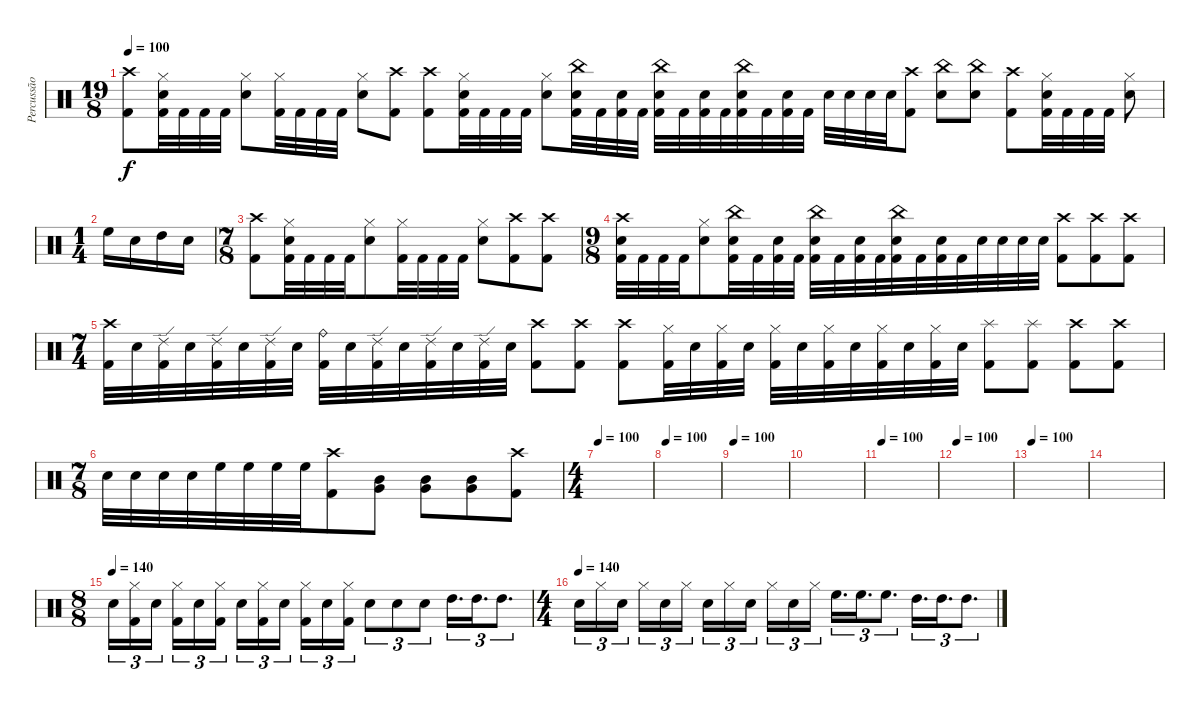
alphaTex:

\track ("Percussão" "Percussão") {instrument percussion}
\staff {score}
\articulation defaults
\ts (19 8)
\tempo 100
\clef neutral
\ks c
("Crash high (hit)" "Kick (hit) 2").8{dy f} ("Hi-Hat (closed)" "Electric Snare (hit)" "Kick (hit) 2").32 "Kick (hit) 2".32 "Kick (hit) 2".32 "Kick (hit) 2".32 ("Hi-Hat (closed)" "Electric Snare (hit)").8 ("Hi-Hat (closed)" "Kick (hit) 2").32 "Kick (hit) 2".32 "Kick (hit) 2".32 "Kick (hit) 2".32 ("Hi-Hat (closed)" "Electric Snare (hit)").8 ("Crash high (hit)" "Kick (hit) 2").8 ("Crash high (hit)" "Kick (hit) 2").8 ("Hi-Hat (closed)" "Electric Snare (hit)" "Kick (hit) 2").32 "Kick (hit) 2".32 "Kick (hit) 2".32 "Kick (hit) 2".32 ("Hi-Hat (closed)" "Electric Snare (hit)").8 ("China (hit)" "Electric Snare (hit)" "Kick (hit) 2").32 "Kick (hit) 2".32 ("Electric Snare (hit)" "Kick (hit) 2").32 "Kick (hit) 2".32 ("China (hit)" "Electric Snare (hit)" "Kick (hit) 2").32 "Kick (hit) 2".32 ("Electric Snare (hit)" "Kick (hit) 2").32 "Kick (hit) 2".32 ("China (hit)" "Electric Snare (hit)" "Kick (hit) 2").32 "Kick (hit) 2".32 ("Electric Snare (hit)" "Kick (hit) 2").32 "Kick (hit) 2".32 "Electric Snare (hit)".32 "Electric Snare (hit)".32 "Electric Snare (hit)".32 "Electric Snare (hit)".32 ("Crash high (hit)" "Kick (hit) 2").8 ("China (hit)" "Electric Snare (hit)").8 ("China (hit)" "Electric Snare (hit)").8 ("Crash high (hit)" "Kick (hit) 2").8 ("Electric Snare (hit)" "Hi-Hat (closed)" "Kick (hit) 2").32 "Kick (hit) 2".32 "Kick (hit) 2".32 "Kick (hit) 2".32 ("Hi-Hat (closed)" "Electric Snare (hit)").8 |
\ts (1 4)
"High Floor Tom (hit)".16 "Electric Snare (hit)".16 "High Tom (hit)".16 "Electric Snare (hit)".16 |
\ts (7 8)
("Crash high (hit)" "Kick (hit) 2").8 ("Hi-Hat (closed)" "Electric Snare (hit)" "Kick (hit) 2").32 "Kick (hit) 2".32 "Kick (hit) 2".32 "Kick (hit) 2".32 ("Hi-Hat (closed)" "Electric Snare (hit)").8 ("Hi-Hat (closed)" "Kick (hit) 2").32 "Kick (hit) 2".32 "Kick (hit) 2".32 "Kick (hit) 2".32 ("Hi-Hat (closed)" "Electric Snare (hit)").8 ("Crash high (hit)" "Kick (hit) 2").8 ("Crash high (hit)" "Kick (hit) 2").8 |
\ts (9 8)
("Crash high (hit)" "Electric Snare (hit)" "Kick (hit) 2").32 "Kick (hit) 2".32 "Kick (hit) 2".32 "Kick (hit) 2".32 ("Hi-Hat (closed)" "Electric Snare (hit)").8 ("China (hit)" "Electric Snare (hit)" "Kick (hit) 2").32 "Kick (hit) 2".32 ("Electric Snare (hit)" "Kick (hit) 2").32 "Kick (hit) 2".32 ("China (hit)" "Electric Snare (hit)" "Kick (hit) 2").32 "Kick (hit) 2".32 ("Electric Snare (hit)" "Kick (hit) 2").32 "Kick (hit) 2".32 ("China (hit)" "Electric Snare (hit)" "Kick (hit) 2").32 "Kick (hit) 2".32 ("Electric Snare (hit)" "Kick (hit) 2").32 "Kick (hit) 2".32 "Electric Snare (hit)".32 "Electric Snare (hit)".32 "Electric Snare (hit)".32 "Electric Snare (hit)".32 ("Crash high (hit)" "Kick (hit) 2").8 ("Crash high (hit)" "Kick (hit) 2").8 ("Crash high (hit)" "Kick (hit) 2").8 |
\ts (7 4)
("Crash high (hit)" "Kick (hit) 2").32 "Electric Snare (hit)".32 ("Ride (edge) 2" "Kick (hit) 2").32 "Electric Snare (hit)".32 ("Ride (edge) 2" "Kick (hit) 2").32 "Electric Snare (hit)".32 ("Ride (edge) 2" "Kick (hit) 2").32 "Electric Snare (hit)".32 ("Ride (bell)" "Kick (hit) 2").32 "Electric Snare (hit)".32 ("Ride (edge) 2" "Kick (hit) 2").32 "Electric Snare (hit)".32 ("Ride (edge) 2" "Kick (hit) 2").32 "Electric Snare (hit)".32 ("Ride (edge) 2" "Kick (hit) 2").32 "Electric Snare (hit)".32 ("Crash high (hit)" "Kick (hit) 2").8 ("Crash high (hit)" "Kick (hit) 2").8 ("Crash high (hit)" "Kick (hit) 2").8 ("Hi-Hat (closed)" "Kick (hit) 2").32 "Electric Snare (hit)".32 ("Hi-Hat (closed)" "Kick (hit) 2").32 "Electric Snare (hit)".32 ("Hi-Hat (closed)" "Kick (hit) 2").32 "Electric Snare (hit)".32 ("Hi-Hat (closed)" "Kick (hit) 2").32 "Electric Snare (hit)".32 ("Hi-Hat (closed)" "Kick (hit) 2").32 "Electric Snare (hit)".32 ("Hi-Hat (closed)" "Kick (hit) 2").32 "Electric Snare (hit)".32 ("Splash (hit)" "Kick (hit) 2").8 ("Splash (hit)" "Kick (hit) 2").8 ("Crash high (hit)" "Kick (hit) 2").8 ("Crash high (hit)" "Kick (hit) 2").8 |
\ts (7 8)
"Electric Snare (hit)".32 "Electric Snare (hit)".32 "Electric Snare (hit)".32 "Electric Snare (hit)".32 "High Floor Tom (hit)".32 "High Floor Tom (hit)".32 "High Floor Tom (hit)".32 "High Floor Tom (hit)".32 ("Crash high (hit)" "Kick (hit) 2").8 ("Mid Tom (hit)" "Very Low Tom (hit)").8 ("Mid Tom (hit)" "Very Low Tom (hit)").8 ("Mid Tom (hit)" "Very Low Tom (hit)").8 ("Crash high (hit)" "Kick (hit) 2").8 |
\ts (4 4)
\tempo 100
|
\tempo 100
|
\tempo 100
|
|
\tempo 100
|
\tempo 100
|
\tempo 100
|
|
\ts (8 8)
\tempo (140)
"Electric Snare (hit)".16{tu (3 2)} ("Kick (hit) 2" "Hi-Hat (closed)").16{tu (3 2)} "Electric Snare (hit)".16{tu (3 2)} ("Kick (hit) 2" "Hi-Hat (closed)").16{tu (3 2)} "Electric Snare (hit)".16{tu (3 2)} ("Kick (hit) 2" "Hi-Hat (closed)").16{tu (3 2)} "Electric Snare (hit)".16{tu (3 2)} ("Kick (hit) 2" "Hi-Hat (closed)").16{tu (3 2)} "Electric Snare (hit)".16{tu (3 2)} ("Kick (hit) 2" "Hi-Hat (closed)").16{tu (3 2)} "Electric Snare (hit)".16{tu (3 2)} ("Kick (hit) 2" "Hi-Hat (closed)").16{tu (3 2)} "Electric Snare (hit)".8{tu (3 2)} "Electric Snare (hit)".8{tu (3 2)} "Electric Snare (hit)".8{tu (3 2)} "High Tom (hit)".16{d tu (3 2)} "High Tom (hit)".16{d tu (3 2)} "High Tom (hit)".8{d tu (3 2)} |
\ts (4 4)
\tempo (140)
"Electric Snare (hit)".16{tu (3 2)} "Hi-Hat (closed)".16{tu (3 2)} "Electric Snare (hit)".16{tu (3 2) beam splitsecondary} "Hi-Hat (closed)".16{tu (3 2)} "Electric Snare (hit)".16{tu (3 2)} "Hi-Hat (closed)".16{tu (3 2)} "Electric Snare (hit)".16{tu (3 2)} "Hi-Hat (closed)".16{tu (3 2)} "Electric Snare (hit)".16{tu (3 2) beam splitsecondary} "Hi-Hat (closed)".16{tu (3 2)} "Electric Snare (hit)".16{tu (3 2)} "Hi-Hat (closed)".16{tu (3 2)} "High Floor Tom (hit)".16{d tu (3 2)} "High Floor Tom (hit)".16{d tu (3 2)} "High Floor Tom (hit)".8{d tu (3 2)} "High Tom (hit)".16{d tu (3 2)} "High Tom (hit)".16{d tu (3 2)} "High Tom (hit)".8{d tu (3 2)}
